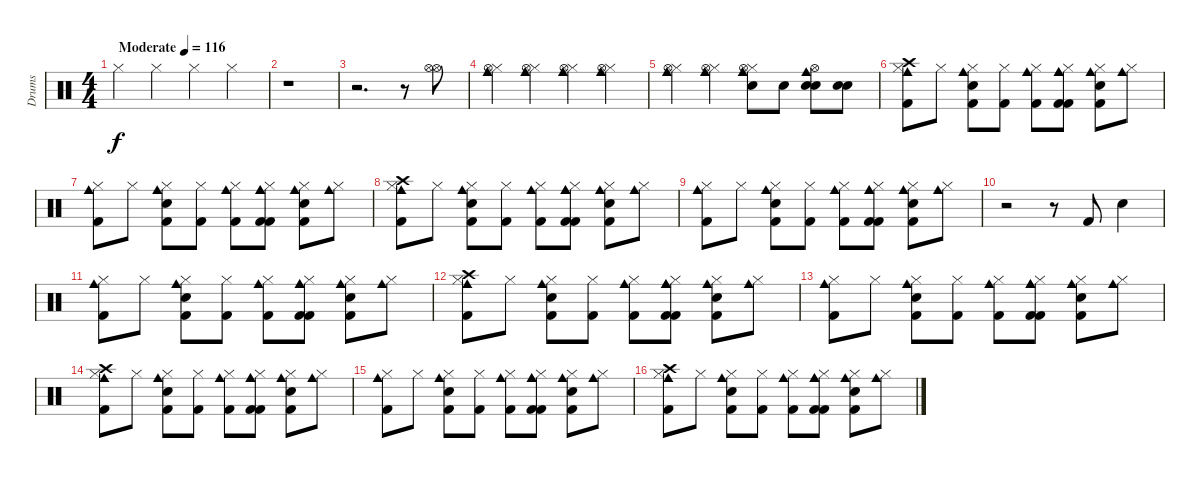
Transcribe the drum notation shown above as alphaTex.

\track ("Drums" "Drums") {instrument percussion}
\staff {score}
\articulation defaults
\ts (4 4)
\tempo (116 "Moderate")
\clef neutral
\ks c "Hi-Hat (closed)".4{dy f} "Hi-Hat (closed)".4 "Hi-Hat (closed)".4 "Hi-Hat (closed)".4
|
r.1 |
r.2{d} r.8 ("Hi-Hat (open)" "Hi-Hat (open)").8 |
("Hi-Hat (closed)" "Cowbell medium (hit)" "Hi-Hat (open)").4 ("Hi-Hat (closed)" "Cowbell medium (hit)" "Hi-Hat (open)").4 ("Hi-Hat (closed)" "Cowbell medium (hit)" "Hi-Hat (open)").4 ("Hi-Hat (closed)" "Cowbell medium (hit)" "Hi-Hat (open)").4 |
("Hi-Hat (closed)" "Cowbell medium (hit)" "Hi-Hat (open)").4 ("Hi-Hat (closed)" "Cowbell medium (hit)" "Hi-Hat (open)").4 ("Hi-Hat (closed)" "Electric Snare (hit)" "Cowbell medium (hit)" "Hi-Hat (open)").8 "Electric Snare (hit)".8 ("Electric Snare (hit)" "Cowbell medium (hit)" "Hi-Hat (open)" "Electric Snare (hit)").8 ("Electric Snare (hit)" "Electric Snare (hit)").8 |
("Kick (hit) 2" "Hi-Hat (closed)" "Crash high (hit)" "Cowbell medium (hit)").8 "Hi-Hat (closed)".8 ("Snare (hit) 2" "Kick (hit) 2" "Hi-Hat (closed)" "Cowbell medium (hit)").8 ("Kick (hit) 2" "Hi-Hat (closed)").8 ("Hi-Hat (closed)" "Kick (hit) 2" "Cowbell medium (hit)").8 ("Kick (hit) 2" "Hi-Hat (closed)" "Cowbell medium (hit)" "Kick (hit) 2" "Cowbell medium (hit)").8 ("Kick (hit) 2" "Snare (hit) 2" "Hi-Hat (closed)" "Cowbell medium (hit)").8 ("Hi-Hat (closed)" "Cowbell medium (hit)").8 |
("Kick (hit) 2" "Hi-Hat (closed)" "Cowbell medium (hit)").8 "Hi-Hat (closed)".8 ("Snare (hit) 2" "Kick (hit) 2" "Hi-Hat (closed)" "Cowbell medium (hit)").8 ("Kick (hit) 2" "Hi-Hat (closed)").8 ("Hi-Hat (closed)" "Kick (hit) 2" "Cowbell medium (hit)").8 ("Kick (hit) 2" "Hi-Hat (closed)" "Cowbell medium (hit)" "Kick (hit) 2" "Cowbell medium (hit)").8 ("Kick (hit) 2" "Snare (hit) 2" "Hi-Hat (closed)" "Cowbell medium (hit)").8 ("Hi-Hat (closed)" "Cowbell medium (hit)").8 |
("Kick (hit) 2" "Hi-Hat (closed)" "Cowbell medium (hit)" "Crash high (hit)").8 "Hi-Hat (closed)".8 ("Snare (hit) 2" "Kick (hit) 2" "Hi-Hat (closed)" "Cowbell medium (hit)").8 ("Kick (hit) 2" "Hi-Hat (closed)").8 ("Hi-Hat (closed)" "Kick (hit) 2" "Cowbell medium (hit)").8 ("Kick (hit) 2" "Hi-Hat (closed)" "Cowbell medium (hit)" "Kick (hit) 2" "Cowbell medium (hit)").8 ("Kick (hit) 2" "Snare (hit) 2" "Hi-Hat (closed)" "Cowbell medium (hit)").8 ("Hi-Hat (closed)" "Cowbell medium (hit)").8 |
("Kick (hit) 2" "Hi-Hat (closed)" "Cowbell medium (hit)").8 "Hi-Hat (closed)".8 ("Snare (hit) 2" "Kick (hit) 2" "Hi-Hat (closed)" "Cowbell medium (hit)").8 ("Kick (hit) 2" "Hi-Hat (closed)").8 ("Hi-Hat (closed)" "Kick (hit) 2" "Cowbell medium (hit)").8 ("Kick (hit) 2" "Hi-Hat (closed)" "Cowbell medium (hit)" "Kick (hit) 2" "Cowbell medium (hit)").8 ("Kick (hit) 2" "Snare (hit) 2" "Hi-Hat (closed)" "Cowbell medium (hit)").8 ("Hi-Hat (closed)" "Cowbell medium (hit)").8 |
r.2 r.8 "Kick (hit) 2".8 "Electric Snare (hit)".4 |
("Kick (hit) 2" "Hi-Hat (closed)" "Cowbell medium (hit)").8 "Hi-Hat (closed)".8 ("Snare (hit) 2" "Kick (hit) 2" "Hi-Hat (closed)" "Cowbell medium (hit)").8 ("Kick (hit) 2" "Hi-Hat (closed)").8 ("Hi-Hat (closed)" "Kick (hit) 2" "Cowbell medium (hit)").8 ("Kick (hit) 2" "Hi-Hat (closed)" "Cowbell medium (hit)" "Kick (hit) 2" "Cowbell medium (hit)").8 ("Kick (hit) 2" "Snare (hit) 2" "Hi-Hat (closed)" "Cowbell medium (hit)").8 ("Hi-Hat (closed)" "Cowbell medium (hit)").8 |
("Kick (hit) 2" "Hi-Hat (closed)" "Cowbell medium (hit)" "Crash high (hit)").8 "Hi-Hat (closed)".8 ("Snare (hit) 2" "Kick (hit) 2" "Hi-Hat (closed)" "Cowbell medium (hit)").8 ("Kick (hit) 2" "Hi-Hat (closed)").8 ("Hi-Hat (closed)" "Kick (hit) 2" "Cowbell medium (hit)").8 ("Kick (hit) 2" "Hi-Hat (closed)" "Cowbell medium (hit)" "Kick (hit) 2" "Cowbell medium (hit)").8 ("Kick (hit) 2" "Snare (hit) 2" "Hi-Hat (closed)" "Cowbell medium (hit)").8 ("Hi-Hat (closed)" "Cowbell medium (hit)").8 |
("Kick (hit) 2" "Hi-Hat (closed)" "Cowbell medium (hit)").8 "Hi-Hat (closed)".8 ("Snare (hit) 2" "Kick (hit) 2" "Hi-Hat (closed)" "Cowbell medium (hit)").8 ("Kick (hit) 2" "Hi-Hat (closed)").8 ("Hi-Hat (closed)" "Kick (hit) 2" "Cowbell medium (hit)").8 ("Kick (hit) 2" "Hi-Hat (closed)" "Cowbell medium (hit)" "Kick (hit) 2" "Cowbell medium (hit)").8 ("Kick (hit) 2" "Snare (hit) 2" "Hi-Hat (closed)" "Cowbell medium (hit)").8 ("Hi-Hat (closed)" "Cowbell medium (hit)").8 |
("Kick (hit) 2" "Hi-Hat (closed)" "Cowbell medium (hit)" "Crash high (hit)").8 "Hi-Hat (closed)".8 ("Snare (hit) 2" "Kick (hit) 2" "Hi-Hat (closed)" "Cowbell medium (hit)").8 ("Kick (hit) 2" "Hi-Hat (closed)").8 ("Hi-Hat (closed)" "Kick (hit) 2" "Cowbell medium (hit)").8 ("Kick (hit) 2" "Hi-Hat (closed)" "Cowbell medium (hit)" "Kick (hit) 2" "Cowbell medium (hit)").8 ("Kick (hit) 2" "Snare (hit) 2" "Hi-Hat (closed)" "Cowbell medium (hit)").8 ("Hi-Hat (closed)" "Cowbell medium (hit)").8 |
("Kick (hit) 2" "Hi-Hat (closed)" "Cowbell medium (hit)").8 "Hi-Hat (closed)".8 ("Snare (hit) 2" "Kick (hit) 2" "Hi-Hat (closed)" "Cowbell medium (hit)").8 ("Kick (hit) 2" "Hi-Hat (closed)").8 ("Hi-Hat (closed)" "Kick (hit) 2" "Cowbell medium (hit)").8 ("Kick (hit) 2" "Hi-Hat (closed)" "Cowbell medium (hit)" "Kick (hit) 2" "Cowbell medium (hit)").8 ("Kick (hit) 2" "Snare (hit) 2" "Hi-Hat (closed)" "Cowbell medium (hit)").8 ("Hi-Hat (closed)" "Cowbell medium (hit)").8 |
("Kick (hit) 2" "Hi-Hat (closed)" "Cowbell medium (hit)" "Crash high (hit)").8 "Hi-Hat (closed)".8 ("Snare (hit) 2" "Kick (hit) 2" "Hi-Hat (closed)" "Cowbell medium (hit)").8 ("Kick (hit) 2" "Hi-Hat (closed)").8 ("Hi-Hat (closed)" "Kick (hit) 2" "Cowbell medium (hit)").8 ("Kick (hit) 2" "Hi-Hat (closed)" "Cowbell medium (hit)" "Kick (hit) 2" "Cowbell medium (hit)").8 ("Kick (hit) 2" "Snare (hit) 2" "Hi-Hat (closed)" "Cowbell medium (hit)").8 ("Hi-Hat (closed)" "Cowbell medium (hit)").8
